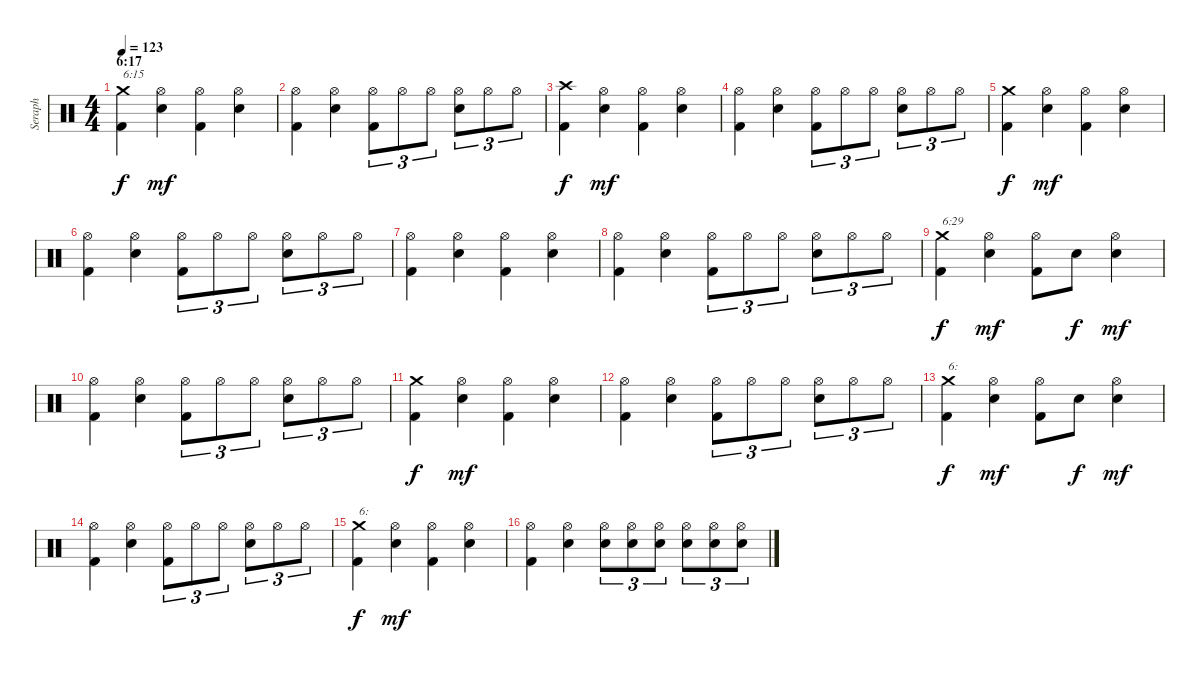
\track ("Seraph" "Seraph") {instrument percussion}
\staff {score}
\articulation defaults
\ts (4 4)
\section ("" "6:17")
\tempo 123
\clef neutral
\ks c
("Kick (hit) 2" "Crash medium (hit)").4{txt "6:15" dy f} ("Electric Snare (hit)" "Hi-Hat (open)").4{dy mf} ("Kick (hit) 2" "Hi-Hat (open)").4 ("Electric Snare (hit)" "Hi-Hat (open)").4 |
("Kick (hit) 2" "Hi-Hat (open)").4 ("Electric Snare (hit)" "Hi-Hat (open)").4 ("Kick (hit) 2" "Hi-Hat (open)").8{tu (3 2)} "Hi-Hat (open)".8{tu (3 2)} "Hi-Hat (open)".8{tu (3 2)} ("Electric Snare (hit)" "Hi-Hat (open)").8{tu (3 2)} "Hi-Hat (open)".8{tu (3 2)} "Hi-Hat (open)".8{tu (3 2)} |
("Kick (hit) 2" "Crash high (hit)").4{dy f} ("Electric Snare (hit)" "Hi-Hat (open)").4{dy mf} ("Kick (hit) 2" "Hi-Hat (open)").4 ("Electric Snare (hit)" "Hi-Hat (open)").4 |
("Kick (hit) 2" "Hi-Hat (open)").4 ("Electric Snare (hit)" "Hi-Hat (open)").4 ("Kick (hit) 2" "Hi-Hat (open)").8{tu (3 2)} "Hi-Hat (open)".8{tu (3 2)} "Hi-Hat (open)".8{tu (3 2)} ("Electric Snare (hit)" "Hi-Hat (open)").8{tu (3 2)} "Hi-Hat (open)".8{tu (3 2)} "Hi-Hat (open)".8{tu (3 2)} |
("Kick (hit) 2" "Crash medium (hit)").4{dy f} ("Electric Snare (hit)" "Hi-Hat (open)").4{dy mf} ("Kick (hit) 2" "Hi-Hat (open)").4 ("Electric Snare (hit)" "Hi-Hat (open)").4 |
("Kick (hit) 2" "Hi-Hat (open)").4 ("Electric Snare (hit)" "Hi-Hat (open)").4 ("Kick (hit) 2" "Hi-Hat (open)").8{tu (3 2)} "Hi-Hat (open)".8{tu (3 2)} "Hi-Hat (open)".8{tu (3 2)} ("Electric Snare (hit)" "Hi-Hat (open)").8{tu (3 2)} "Hi-Hat (open)".8{tu (3 2)} "Hi-Hat (open)".8{tu (3 2)} |
("Kick (hit) 2" "Hi-Hat (open)").4 ("Electric Snare (hit)" "Hi-Hat (open)").4 ("Kick (hit) 2" "Hi-Hat (open)").4 ("Electric Snare (hit)" "Hi-Hat (open)").4 |
("Kick (hit) 2" "Hi-Hat (open)").4 ("Electric Snare (hit)" "Hi-Hat (open)").4 ("Kick (hit) 2" "Hi-Hat (open)").8{tu (3 2)} "Hi-Hat (open)".8{tu (3 2)} "Hi-Hat (open)".8{tu (3 2)} ("Electric Snare (hit)" "Hi-Hat (open)").8{tu (3 2)} "Hi-Hat (open)".8{tu (3 2)} "Hi-Hat (open)".8{tu (3 2)} |
("Kick (hit) 2" "Crash medium (hit)").4{txt "6:29" dy f} ("Electric Snare (hit)" "Hi-Hat (open)").4{dy mf} ("Kick (hit) 2" "Hi-Hat (open)").8 "Electric Snare (hit)".8{dy f} ("Electric Snare (hit)" "Hi-Hat (open)").4{dy mf} |
("Kick (hit) 2" "Hi-Hat (open)").4 ("Electric Snare (hit)" "Hi-Hat (open)").4 ("Kick (hit) 2" "Hi-Hat (open)").8{tu (3 2)} "Hi-Hat (open)".8{tu (3 2)} "Hi-Hat (open)".8{tu (3 2)} ("Electric Snare (hit)" "Hi-Hat (open)").8{tu (3 2)} "Hi-Hat (open)".8{tu (3 2)} "Hi-Hat (open)".8{tu (3 2)} |
("Kick (hit) 2" "Crash medium (hit)").4{dy f} ("Electric Snare (hit)" "Hi-Hat (open)").4{dy mf} ("Kick (hit) 2" "Hi-Hat (open)").4 ("Electric Snare (hit)" "Hi-Hat (open)").4 |
("Kick (hit) 2" "Hi-Hat (open)").4 ("Electric Snare (hit)" "Hi-Hat (open)").4 ("Kick (hit) 2" "Hi-Hat (open)").8{tu (3 2)} "Hi-Hat (open)".8{tu (3 2)} "Hi-Hat (open)".8{tu (3 2)} ("Electric Snare (hit)" "Hi-Hat (open)").8{tu (3 2)} "Hi-Hat (open)".8{tu (3 2)} "Hi-Hat (open)".8{tu (3 2)} |
("Kick (hit) 2" "Crash medium (hit)").4{txt "6:" dy f} ("Electric Snare (hit)" "Hi-Hat (open)").4{dy mf} ("Kick (hit) 2" "Hi-Hat (open)").8 "Electric Snare (hit)".8{dy f} ("Electric Snare (hit)" "Hi-Hat (open)").4{dy mf} |
("Kick (hit) 2" "Hi-Hat (open)").4 ("Electric Snare (hit)" "Hi-Hat (open)").4 ("Kick (hit) 2" "Hi-Hat (open)").8{tu (3 2)} "Hi-Hat (open)".8{tu (3 2)} "Hi-Hat (open)".8{tu (3 2)} ("Electric Snare (hit)" "Hi-Hat (open)").8{tu (3 2)} "Hi-Hat (open)".8{tu (3 2)} "Hi-Hat (open)".8{tu (3 2)} |
("Kick (hit) 2" "Crash medium (hit)").4{txt "6:" dy f} ("Electric Snare (hit)" "Hi-Hat (open)").4{dy mf} ("Kick (hit) 2" "Hi-Hat (open)").4 ("Electric Snare (hit)" "Hi-Hat (open)").4 |
("Kick (hit) 2" "Hi-Hat (open)").4 ("Electric Snare (hit)" "Hi-Hat (open)").4 ("Electric Snare (hit)" "Hi-Hat (open)").8{tu (3 2)} ("Electric Snare (hit)" "Hi-Hat (open)").8{tu (3 2)} ("Electric Snare (hit)" "Hi-Hat (open)").8{tu (3 2)} ("Electric Snare (hit)" "Hi-Hat (open)").8{tu (3 2)} ("Electric Snare (hit)" "Hi-Hat (open)").8{tu (3 2)} ("Electric Snare (hit)" "Hi-Hat (open)").8{tu (3 2)}
